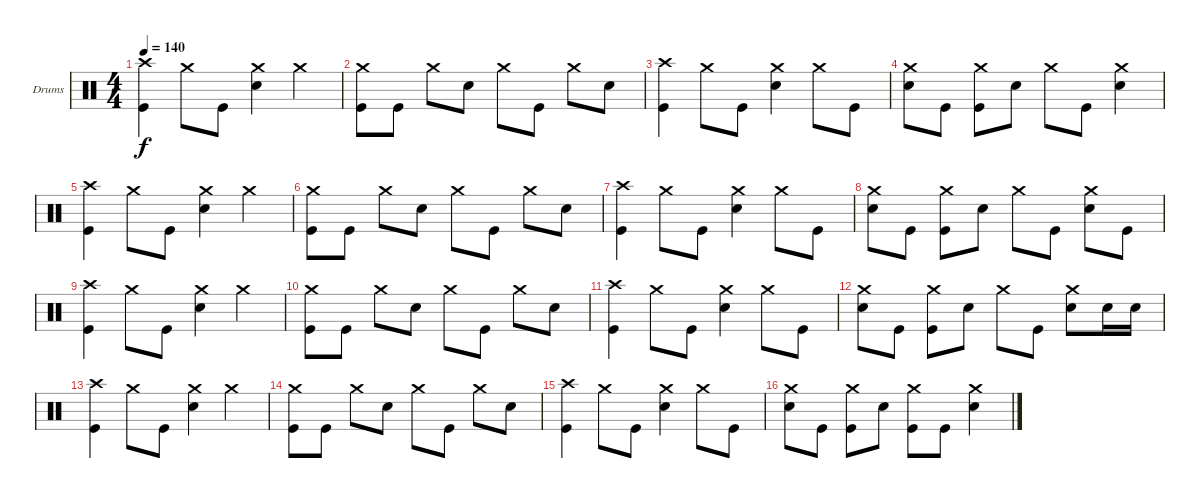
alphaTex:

\defaultSystemsLayout 4
\bracketExtendMode groupsimilarinstruments
\firstSystemTrackNameOrientation horizontal
\otherSystemsTrackNameOrientation horizontal
\track ("Drumkit" "Drums") {instrument percussion}
\staff {score}
\articulation defaults
\ts (4 4)
\tempo 140
\clef neutral
\scale
0.333333
\ks c
("Crash high (hit)" "Kick (hit)").4{dy f} "Crash medium (hit)".8 "Kick (hit)".8 ("Crash medium (hit)" "Snare (hit) 2").4 "Crash medium (hit)".4 |
("Crash medium (hit)" "Kick (hit)").8 "Kick (hit)".8 "Crash medium (hit)".8 "Snare (hit) 2".8 "Crash medium (hit)".8 "Kick (hit)".8 "Crash medium (hit)".8 "Snare (hit) 2".8 |
("Crash high (hit)" "Kick (hit)").4 "Crash medium (hit)".8 "Kick (hit)".8 ("Crash medium (hit)" "Snare (hit) 2").4 "Crash medium (hit)".8 "Kick (hit)".8 |
("Crash medium (hit)" "Snare (hit) 2").8 "Kick (hit)".8 ("Crash medium (hit)" "Kick (hit)").8 "Snare (hit) 2".8 "Crash medium (hit)".8 "Kick (hit)".8 ("Crash medium (hit)" "Snare (hit) 2").4 |
("Crash high (hit)" "Kick (hit)").4 "Crash medium (hit)".8 "Kick (hit)".8 ("Crash medium (hit)" "Snare (hit) 2").4 "Crash medium (hit)".4 |
("Crash medium (hit)" "Kick (hit)").8 "Kick (hit)".8 "Crash medium (hit)".8 "Snare (hit) 2".8 "Crash medium (hit)".8 "Kick (hit)".8 "Crash medium (hit)".8 "Snare (hit) 2".8 |
("Crash high (hit)" "Kick (hit)").4 "Crash medium (hit)".8 "Kick (hit)".8 ("Crash medium (hit)" "Snare (hit) 2").4 "Crash medium (hit)".8 "Kick (hit)".8 |
("Crash medium (hit)" "Snare (hit) 2").8 "Kick (hit)".8 ("Crash medium (hit)" "Kick (hit)").8 "Snare (hit) 2".8 "Crash medium (hit)".8 "Kick (hit)".8 ("Crash medium (hit)" "Snare (hit) 2").8 "Kick (hit)".8 |
("Crash high (hit)" "Kick (hit)").4 "Crash medium (hit)".8 "Kick (hit)".8 ("Crash medium (hit)" "Snare (hit) 2").4 "Crash medium (hit)".4 |
("Crash medium (hit)" "Kick (hit)").8 "Kick (hit)".8 "Crash medium (hit)".8 "Snare (hit) 2".8 "Crash medium (hit)".8 "Kick (hit)".8 "Crash medium (hit)".8 "Snare (hit) 2".8 |
("Crash high (hit)" "Kick (hit)").4 "Crash medium (hit)".8 "Kick (hit)".8 ("Crash medium (hit)" "Snare (hit) 2").4 "Crash medium (hit)".8 "Kick (hit)".8 |
("Crash medium (hit)" "Snare (hit) 2").8 "Kick (hit)".8 ("Crash medium (hit)" "Kick (hit)").8 "Snare (hit) 2".8 "Crash medium (hit)".8 "Kick (hit)".8 ("Crash medium (hit)" "Snare (hit) 2").8 "Snare (hit) 2".16 "Snare (hit) 2".16 |
("Crash high (hit)" "Kick (hit)").4 "Crash medium (hit)".8 "Kick (hit)".8 ("Crash medium (hit)" "Snare (hit) 2").4 "Crash medium (hit)".4 |
("Crash medium (hit)" "Kick (hit)").8 "Kick (hit)".8 "Crash medium (hit)".8 "Snare (hit) 2".8 "Crash medium (hit)".8 "Kick (hit)".8 "Crash medium (hit)".8 "Snare (hit) 2".8 |
("Crash high (hit)" "Kick (hit)").4 "Crash medium (hit)".8 "Kick (hit)".8 ("Crash medium (hit)" "Snare (hit) 2").4 "Crash medium (hit)".8 "Kick (hit)".8 |
("Crash medium (hit)" "Snare (hit) 2").8 "Kick (hit)".8 ("Crash medium (hit)" "Kick (hit)").8 "Snare (hit) 2".8 ("Crash medium (hit)" "Kick (hit)").8 "Kick (hit)".8 ("Crash medium (hit)" "Snare (hit) 2").4
